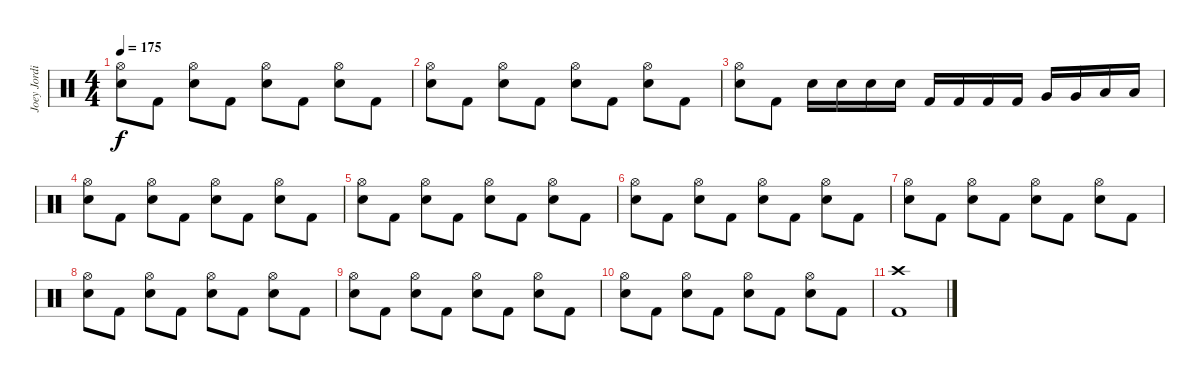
\track ("Joey Jordison (Drums)" "Joey Jordi") {instrument percussion}
\staff {score}
\articulation defaults
\ts (4 4)
\tempo 175
\clef neutral
\ks c
("Hi-Hat (open)" "Electric Snare (hit)").8{dy f} "Kick (hit) 2".8 ("Hi-Hat (open)" "Electric Snare (hit)").8 "Kick (hit) 2".8 ("Hi-Hat (open)" "Electric Snare (hit)").8 "Kick (hit) 2".8 ("Hi-Hat (open)" "Electric Snare (hit)").8 "Kick (hit) 2".8 |
("Hi-Hat (open)" "Electric Snare (hit)").8 "Kick (hit) 2".8 ("Hi-Hat (open)" "Electric Snare (hit)").8 "Kick (hit) 2".8 ("Hi-Hat (open)" "Electric Snare (hit)").8 "Kick (hit) 2".8 ("Hi-Hat (open)" "Electric Snare (hit)").8 "Kick (hit) 2".8 |
("Hi-Hat (open)" "Electric Snare (hit)").8 "Kick (hit) 2".8 "Electric Snare (hit)".16 "Electric Snare (hit)".16 "Electric Snare (hit)".16 "Electric Snare (hit)".16 "Kick (hit) 2".16 "Kick (hit) 2".16 "Kick (hit) 2".16 "Kick (hit) 2".16 "Very Low Tom (hit)".16 "Very Low Tom (hit)".16 "Low Floor Tom (hit)".16 "Low Floor Tom (hit)".16 |
("Hi-Hat (open)" "Electric Snare (hit)").8 "Kick (hit) 2".8 ("Hi-Hat (open)" "Electric Snare (hit)").8 "Kick (hit) 2".8 ("Hi-Hat (open)" "Electric Snare (hit)").8 "Kick (hit) 2".8 ("Hi-Hat (open)" "Electric Snare (hit)").8 "Kick (hit) 2".8 |
("Hi-Hat (open)" "Electric Snare (hit)").8 "Kick (hit) 2".8 ("Hi-Hat (open)" "Electric Snare (hit)").8 "Kick (hit) 2".8 ("Hi-Hat (open)" "Electric Snare (hit)").8 "Kick (hit) 2".8 ("Hi-Hat (open)" "Electric Snare (hit)").8 "Kick (hit) 2".8 |
("Hi-Hat (open)" "Electric Snare (hit)").8 "Kick (hit) 2".8 ("Hi-Hat (open)" "Electric Snare (hit)").8 "Kick (hit) 2".8 ("Hi-Hat (open)" "Electric Snare (hit)").8 "Kick (hit) 2".8 ("Hi-Hat (open)" "Electric Snare (hit)").8 "Kick (hit) 2".8 |
("Hi-Hat (open)" "Electric Snare (hit)").8 "Kick (hit) 2".8 ("Hi-Hat (open)" "Electric Snare (hit)").8 "Kick (hit) 2".8 ("Hi-Hat (open)" "Electric Snare (hit)").8 "Kick (hit) 2".8 ("Hi-Hat (open)" "Electric Snare (hit)").8 "Kick (hit) 2".8 |
("Hi-Hat (open)" "Electric Snare (hit)").8 "Kick (hit) 2".8 ("Hi-Hat (open)" "Electric Snare (hit)").8 "Kick (hit) 2".8 ("Hi-Hat (open)" "Electric Snare (hit)").8 "Kick (hit) 2".8 ("Hi-Hat (open)" "Electric Snare (hit)").8 "Kick (hit) 2".8 |
("Hi-Hat (open)" "Electric Snare (hit)").8 "Kick (hit) 2".8 ("Hi-Hat (open)" "Electric Snare (hit)").8 "Kick (hit) 2".8 ("Hi-Hat (open)" "Electric Snare (hit)").8 "Kick (hit) 2".8 ("Hi-Hat (open)" "Electric Snare (hit)").8 "Kick (hit) 2".8 |
("Hi-Hat (open)" "Electric Snare (hit)").8 "Kick (hit) 2".8 ("Hi-Hat (open)" "Electric Snare (hit)").8 "Kick (hit) 2".8 ("Hi-Hat (open)" "Electric Snare (hit)").8 "Kick (hit) 2".8 ("Hi-Hat (open)" "Electric Snare (hit)").8 "Kick (hit) 2".8 |
("Crash high (hit)" "Kick (hit) 2").1
